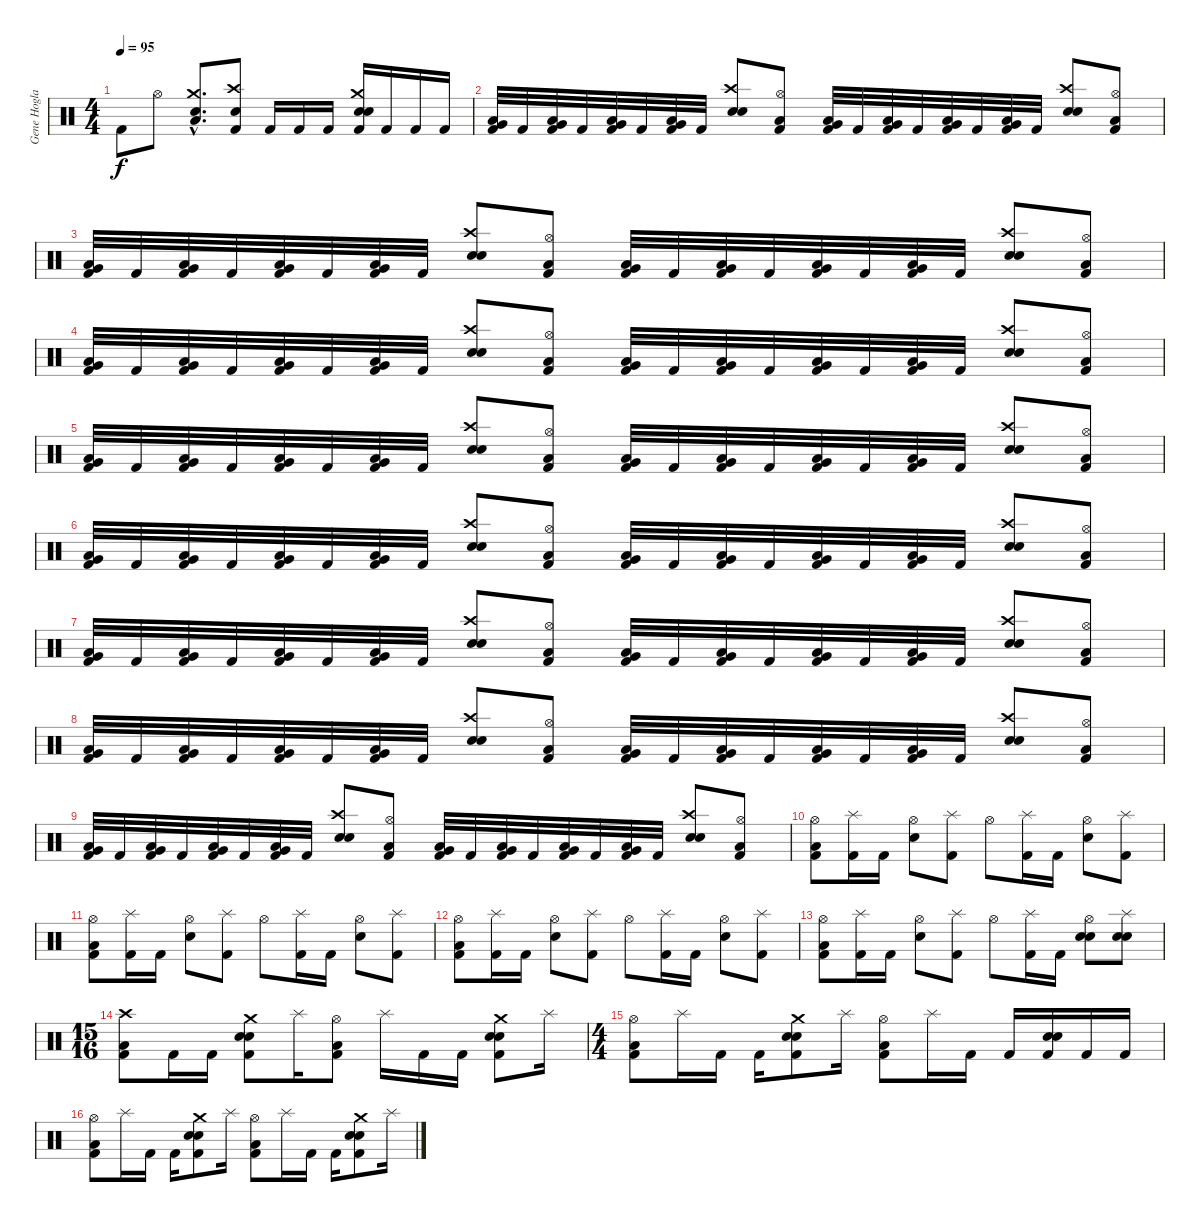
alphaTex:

\track ("Gene Hoglan" "Gene Hogla") {instrument percussion}
\staff {score}
\articulation defaults
\ts (4 4)
\tempo 95
\clef neutral
\ks c "Kick (hit) 2".8{dy f} "Hi-Hat (open)".8
("Low Floor Tom (hit)"{hac} "Crash medium (hit)"{hac} "Electric Snare (hit)"{hac}).8{d} ("Crash high (hit)" "Snare (hit) 2" "Kick (hit) 2").8 "Kick (hit) 2".16 "Kick (hit) 2".16 "Kick (hit) 2".16 ("Snare (hit) 2" "Crash medium (hit)" "Electric Snare (hit)" "Kick (hit) 2").16 "Kick (hit) 2".16 "Kick (hit) 2".16 "Kick (hit) 2".16 |
("Very Low Tom (hit)" "Low Floor Tom (hit)" "Kick (hit) 2").32 "Kick (hit) 2".32 ("Very Low Tom (hit)" "Low Floor Tom (hit)" "Kick (hit) 2").32 "Kick (hit) 2".32 ("Very Low Tom (hit)" "Low Floor Tom (hit)" "Kick (hit) 2").32 "Kick (hit) 2".32 ("Very Low Tom (hit)" "Low Floor Tom (hit)" "Kick (hit) 2").32 "Kick (hit) 2".32 ("Electric Snare (hit)" "Crash high (hit)" "Snare (hit) 2").8 ("Hi-Hat (open)" "Low Floor Tom (hit)" "Kick (hit) 2").8 ("Very Low Tom (hit)" "Low Floor Tom (hit)" "Kick (hit) 2").32 "Kick (hit) 2".32 ("Very Low Tom (hit)" "Low Floor Tom (hit)" "Kick (hit) 2").32 "Kick (hit) 2".32 ("Very Low Tom (hit)" "Low Floor Tom (hit)" "Kick (hit) 2").32 "Kick (hit) 2".32 ("Very Low Tom (hit)" "Low Floor Tom (hit)" "Kick (hit) 2").32 "Kick (hit) 2".32 ("Electric Snare (hit)" "Crash high (hit)" "Snare (hit) 2").8 ("Hi-Hat (open)" "Low Floor Tom (hit)" "Kick (hit) 2").8 |
("Very Low Tom (hit)" "Low Floor Tom (hit)" "Kick (hit) 2").32 "Kick (hit) 2".32 ("Very Low Tom (hit)" "Low Floor Tom (hit)" "Kick (hit) 2").32 "Kick (hit) 2".32 ("Very Low Tom (hit)" "Low Floor Tom (hit)" "Kick (hit) 2").32 "Kick (hit) 2".32 ("Very Low Tom (hit)" "Low Floor Tom (hit)" "Kick (hit) 2").32 "Kick (hit) 2".32 ("Electric Snare (hit)" "Crash high (hit)" "Snare (hit) 2").8 ("Hi-Hat (open)" "Low Floor Tom (hit)" "Kick (hit) 2").8 ("Very Low Tom (hit)" "Low Floor Tom (hit)" "Kick (hit) 2").32 "Kick (hit) 2".32 ("Very Low Tom (hit)" "Low Floor Tom (hit)" "Kick (hit) 2").32 "Kick (hit) 2".32 ("Very Low Tom (hit)" "Low Floor Tom (hit)" "Kick (hit) 2").32 "Kick (hit) 2".32 ("Very Low Tom (hit)" "Low Floor Tom (hit)" "Kick (hit) 2").32 "Kick (hit) 2".32 ("Electric Snare (hit)" "Crash high (hit)" "Snare (hit) 2").8 ("Hi-Hat (open)" "Low Floor Tom (hit)" "Kick (hit) 2").8 |
("Very Low Tom (hit)" "Low Floor Tom (hit)" "Kick (hit) 2").32 "Kick (hit) 2".32 ("Very Low Tom (hit)" "Low Floor Tom (hit)" "Kick (hit) 2").32 "Kick (hit) 2".32 ("Very Low Tom (hit)" "Low Floor Tom (hit)" "Kick (hit) 2").32 "Kick (hit) 2".32 ("Very Low Tom (hit)" "Low Floor Tom (hit)" "Kick (hit) 2").32 "Kick (hit) 2".32 ("Electric Snare (hit)" "Crash high (hit)" "Snare (hit) 2").8 ("Hi-Hat (open)" "Low Floor Tom (hit)" "Kick (hit) 2").8 ("Very Low Tom (hit)" "Low Floor Tom (hit)" "Kick (hit) 2").32 "Kick (hit) 2".32 ("Very Low Tom (hit)" "Low Floor Tom (hit)" "Kick (hit) 2").32 "Kick (hit) 2".32 ("Very Low Tom (hit)" "Low Floor Tom (hit)" "Kick (hit) 2").32 "Kick (hit) 2".32 ("Very Low Tom (hit)" "Low Floor Tom (hit)" "Kick (hit) 2").32 "Kick (hit) 2".32 ("Electric Snare (hit)" "Crash high (hit)" "Snare (hit) 2").8 ("Hi-Hat (open)" "Low Floor Tom (hit)" "Kick (hit) 2").8 |
("Very Low Tom (hit)" "Low Floor Tom (hit)" "Kick (hit) 2").32 "Kick (hit) 2".32 ("Very Low Tom (hit)" "Low Floor Tom (hit)" "Kick (hit) 2").32 "Kick (hit) 2".32 ("Very Low Tom (hit)" "Low Floor Tom (hit)" "Kick (hit) 2").32 "Kick (hit) 2".32 ("Very Low Tom (hit)" "Low Floor Tom (hit)" "Kick (hit) 2").32 "Kick (hit) 2".32 ("Electric Snare (hit)" "Crash high (hit)" "Snare (hit) 2").8 ("Hi-Hat (open)" "Low Floor Tom (hit)" "Kick (hit) 2").8 ("Very Low Tom (hit)" "Low Floor Tom (hit)" "Kick (hit) 2").32 "Kick (hit) 2".32 ("Very Low Tom (hit)" "Low Floor Tom (hit)" "Kick (hit) 2").32 "Kick (hit) 2".32 ("Very Low Tom (hit)" "Low Floor Tom (hit)" "Kick (hit) 2").32 "Kick (hit) 2".32 ("Very Low Tom (hit)" "Low Floor Tom (hit)" "Kick (hit) 2").32 "Kick (hit) 2".32 ("Electric Snare (hit)" "Crash high (hit)" "Snare (hit) 2").8 ("Hi-Hat (open)" "Low Floor Tom (hit)" "Kick (hit) 2").8 |
("Very Low Tom (hit)" "Low Floor Tom (hit)" "Kick (hit) 2").32 "Kick (hit) 2".32 ("Very Low Tom (hit)" "Low Floor Tom (hit)" "Kick (hit) 2").32 "Kick (hit) 2".32 ("Very Low Tom (hit)" "Low Floor Tom (hit)" "Kick (hit) 2").32 "Kick (hit) 2".32 ("Very Low Tom (hit)" "Low Floor Tom (hit)" "Kick (hit) 2").32 "Kick (hit) 2".32 ("Electric Snare (hit)" "Crash high (hit)" "Snare (hit) 2").8 ("Hi-Hat (open)" "Low Floor Tom (hit)" "Kick (hit) 2").8 ("Very Low Tom (hit)" "Low Floor Tom (hit)" "Kick (hit) 2").32 "Kick (hit) 2".32 ("Very Low Tom (hit)" "Low Floor Tom (hit)" "Kick (hit) 2").32 "Kick (hit) 2".32 ("Very Low Tom (hit)" "Low Floor Tom (hit)" "Kick (hit) 2").32 "Kick (hit) 2".32 ("Very Low Tom (hit)" "Low Floor Tom (hit)" "Kick (hit) 2").32 "Kick (hit) 2".32 ("Electric Snare (hit)" "Crash high (hit)" "Snare (hit) 2").8 ("Hi-Hat (open)" "Low Floor Tom (hit)" "Kick (hit) 2").8 |
("Very Low Tom (hit)" "Low Floor Tom (hit)" "Kick (hit) 2").32 "Kick (hit) 2".32 ("Very Low Tom (hit)" "Low Floor Tom (hit)" "Kick (hit) 2").32 "Kick (hit) 2".32 ("Very Low Tom (hit)" "Low Floor Tom (hit)" "Kick (hit) 2").32 "Kick (hit) 2".32 ("Very Low Tom (hit)" "Low Floor Tom (hit)" "Kick (hit) 2").32 "Kick (hit) 2".32 ("Electric Snare (hit)" "Crash high (hit)" "Snare (hit) 2").8 ("Hi-Hat (open)" "Low Floor Tom (hit)" "Kick (hit) 2").8 ("Very Low Tom (hit)" "Low Floor Tom (hit)" "Kick (hit) 2").32 "Kick (hit) 2".32 ("Very Low Tom (hit)" "Low Floor Tom (hit)" "Kick (hit) 2").32 "Kick (hit) 2".32 ("Very Low Tom (hit)" "Low Floor Tom (hit)" "Kick (hit) 2").32 "Kick (hit) 2".32 ("Very Low Tom (hit)" "Low Floor Tom (hit)" "Kick (hit) 2").32 "Kick (hit) 2".32 ("Electric Snare (hit)" "Crash high (hit)" "Snare (hit) 2").8 ("Hi-Hat (open)" "Low Floor Tom (hit)" "Kick (hit) 2").8 |
("Very Low Tom (hit)" "Low Floor Tom (hit)" "Kick (hit) 2").32 "Kick (hit) 2".32 ("Very Low Tom (hit)" "Low Floor Tom (hit)" "Kick (hit) 2").32 "Kick (hit) 2".32 ("Very Low Tom (hit)" "Low Floor Tom (hit)" "Kick (hit) 2").32 "Kick (hit) 2".32 ("Very Low Tom (hit)" "Low Floor Tom (hit)" "Kick (hit) 2").32 "Kick (hit) 2".32 ("Electric Snare (hit)" "Crash high (hit)" "Snare (hit) 2").8 ("Hi-Hat (open)" "Low Floor Tom (hit)" "Kick (hit) 2").8 ("Very Low Tom (hit)" "Low Floor Tom (hit)" "Kick (hit) 2").32 "Kick (hit) 2".32 ("Very Low Tom (hit)" "Low Floor Tom (hit)" "Kick (hit) 2").32 "Kick (hit) 2".32 ("Very Low Tom (hit)" "Low Floor Tom (hit)" "Kick (hit) 2").32 "Kick (hit) 2".32 ("Very Low Tom (hit)" "Low Floor Tom (hit)" "Kick (hit) 2").32 "Kick (hit) 2".32 ("Electric Snare (hit)" "Crash high (hit)" "Snare (hit) 2").8 ("Hi-Hat (open)" "Low Floor Tom (hit)" "Kick (hit) 2").8 |
("Very Low Tom (hit)" "Low Floor Tom (hit)" "Kick (hit) 2").32 "Kick (hit) 2".32 ("Very Low Tom (hit)" "Low Floor Tom (hit)" "Kick (hit) 2").32 "Kick (hit) 2".32 ("Very Low Tom (hit)" "Low Floor Tom (hit)" "Kick (hit) 2").32 "Kick (hit) 2".32 ("Very Low Tom (hit)" "Low Floor Tom (hit)" "Kick (hit) 2").32 "Kick (hit) 2".32 ("Electric Snare (hit)" "Crash high (hit)" "Snare (hit) 2").8 ("Hi-Hat (open)" "Low Floor Tom (hit)" "Kick (hit) 2").8 ("Very Low Tom (hit)" "Low Floor Tom (hit)" "Kick (hit) 2").32 "Kick (hit) 2".32 ("Very Low Tom (hit)" "Low Floor Tom (hit)" "Kick (hit) 2").32 "Kick (hit) 2".32 ("Very Low Tom (hit)" "Low Floor Tom (hit)" "Kick (hit) 2").32 "Kick (hit) 2".32 ("Very Low Tom (hit)" "Low Floor Tom (hit)" "Kick (hit) 2").32 "Kick (hit) 2".32 ("Electric Snare (hit)" "Crash high (hit)" "Snare (hit) 2").8 ("Hi-Hat (open)" "Low Floor Tom (hit)" "Kick (hit) 2").8 |
("Hi-Hat (open)" "Low Floor Tom (hit)" "Kick (hit) 2").8 ("Splash (hit)" "Kick (hit) 2").16 "Kick (hit) 2".16 ("Hi-Hat (open)" "Snare (hit) 2").8 ("Splash (hit)" "Kick (hit) 2").8 "Hi-Hat (open)".8 ("Splash (hit)" "Kick (hit) 2").16 "Kick (hit) 2".16 ("Hi-Hat (open)" "Electric Snare (hit)").8 ("Splash (hit)" "Kick (hit) 2").8 |
("Hi-Hat (open)" "Low Floor Tom (hit)" "Kick (hit) 2").8 ("Splash (hit)" "Kick (hit) 2").16 "Kick (hit) 2".16 ("Hi-Hat (open)" "Snare (hit) 2").8 ("Splash (hit)" "Kick (hit) 2").8 "Hi-Hat (open)".8 ("Splash (hit)" "Kick (hit) 2").16 "Kick (hit) 2".16 ("Hi-Hat (open)" "Electric Snare (hit)").8 ("Splash (hit)" "Kick (hit) 2").8 |
("Hi-Hat (open)" "Low Floor Tom (hit)" "Kick (hit) 2").8 ("Splash (hit)" "Kick (hit) 2").16 "Kick (hit) 2".16 ("Hi-Hat (open)" "Snare (hit) 2").8 ("Splash (hit)" "Kick (hit) 2").8 "Hi-Hat (open)".8 ("Splash (hit)" "Kick (hit) 2").16 "Kick (hit) 2".16 ("Hi-Hat (open)" "Electric Snare (hit)").8 ("Splash (hit)" "Kick (hit) 2").8 |
("Hi-Hat (open)" "Low Floor Tom (hit)" "Kick (hit) 2").8 ("Splash (hit)" "Kick (hit) 2").16 "Kick (hit) 2".16 ("Hi-Hat (open)" "Snare (hit) 2").8 ("Splash (hit)" "Kick (hit) 2").8 "Hi-Hat (open)".8 ("Splash (hit)" "Kick (hit) 2").16 "Kick (hit) 2".16 ("Snare (hit) 2" "Hi-Hat (open)" "Electric Snare (hit)").8 ("Snare (hit) 2" "Splash (hit)" "Electric Snare (hit)").8 |
\ts (15 16)
("Crash high (hit)" "Low Floor Tom (hit)" "Kick (hit) 2").8 "Kick (hit) 2".16 "Kick (hit) 2".16 ("Electric Snare (hit)" "Crash medium (hit)" "Snare (hit) 2" "Kick (hit) 2").8 "Splash (hit)".16 ("Hi-Hat (open)" "Low Floor Tom (hit)" "Kick (hit) 2").8 "Splash (hit)".16 "Kick (hit) 2".16 "Kick (hit) 2".16 ("Snare (hit) 2" "Crash medium (hit)" "Electric Snare (hit)" "Kick (hit) 2").8 "Splash (hit)".16 |
\ts (4 4)
("Hi-Hat (open)" "Low Floor Tom (hit)" "Kick (hit) 2").8 "Splash (hit)".16 "Kick (hit) 2".16 "Kick (hit) 2".16 ("Electric Snare (hit)" "Crash medium (hit)" "Snare (hit) 2" "Kick (hit) 2").8 "Splash (hit)".16 ("Hi-Hat (open)" "Low Floor Tom (hit)" "Kick (hit) 2").8 "Splash (hit)".16 "Kick (hit) 2".16 "Kick (hit) 2".16 ("Electric Snare (hit)" "Snare (hit) 2" "Kick (hit) 2").16 "Kick (hit) 2".16 "Kick (hit) 2".16 |
("Hi-Hat (open)" "Low Floor Tom (hit)" "Kick (hit) 2").8 "Splash (hit)".16 "Kick (hit) 2".16 "Kick (hit) 2".16 ("Electric Snare (hit)" "Crash medium (hit)" "Snare (hit) 2" "Kick (hit) 2").8 "Splash (hit)".16 ("Hi-Hat (open)" "Low Floor Tom (hit)" "Kick (hit) 2").8 "Splash (hit)".16 "Kick (hit) 2".16 "Kick (hit) 2".16 ("Electric Snare (hit)" "Crash medium (hit)" "Snare (hit) 2" "Kick (hit) 2").8 "Splash (hit)".16
